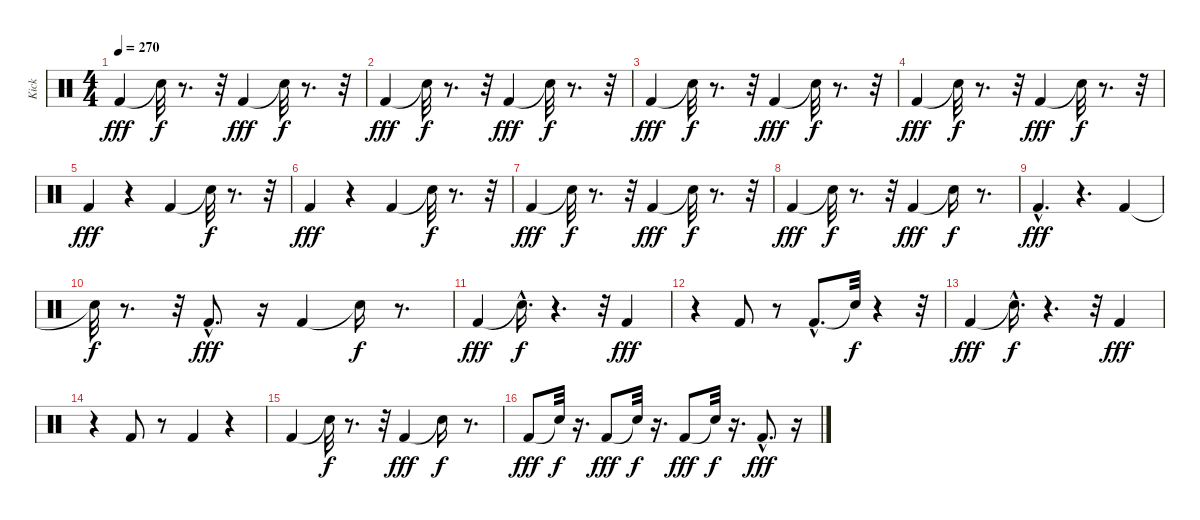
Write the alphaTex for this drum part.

\track ("Kick" "Kick") {instrument percussion}
\staff {score}
\articulation defaults
\ts (4 4)
\tempo 270
\clef neutral
\ks c "Kick (hit) 2".4{dy fff} "Snare (hit)"{t}.32{dy f}
r.8{d} r.32 "Kick (hit) 2".4{dy fff} "Snare (hit)"{t}.32{dy f} r.8{d} r.32 |
"Kick (hit) 2".4{dy fff} "Snare (hit)"{t}.32{dy f} r.8{d} r.32 "Kick (hit) 2".4{dy fff} "Snare (hit)"{t}.32{dy f} r.8{d} r.32 |
"Kick (hit) 2".4{dy fff} "Snare (hit)"{t}.32{dy f} r.8{d} r.32 "Kick (hit) 2".4{dy fff} "Snare (hit)"{t}.32{dy f} r.8{d} r.32 |
"Kick (hit) 2".4{dy fff} "Snare (hit)"{t}.32{dy f} r.8{d} r.32 "Kick (hit) 2".4{dy fff} "Snare (hit)"{t}.32{dy f} r.8{d} r.32 |
"Kick (hit) 2".4{dy fff} r.4 "Kick (hit) 2".4 "Snare (hit)"{t}.32{dy f} r.8{d} r.32 |
"Kick (hit) 2".4{dy fff} r.4 "Kick (hit) 2".4 "Snare (hit)"{t}.32{dy f} r.8{d} r.32 |
"Kick (hit) 2".4{dy fff} "Snare (hit)"{t}.32{dy f} r.8{d} r.32 "Kick (hit) 2".4{dy fff} "Snare (hit)"{t}.32{dy f} r.8{d} r.32 |
"Kick (hit) 2".4{dy fff} "Snare (hit)"{t}.32{dy f} r.8{d} r.32 "Kick (hit) 2".4{dy fff} "Snare (hit)"{t}.16{dy f} r.8{d} |
"Kick (hit) 2"{hac}.4{d dy fff} r.4{d} "Kick (hit) 2".4 |
"Snare (hit)"{t}.32{dy f} r.8{d} r.32 "Kick (hit) 2"{hac}.8{d dy fff} r.16 "Kick (hit) 2".4 "Snare (hit)"{t}.16{dy f} r.8{d} |
"Kick (hit) 2".4{dy fff} "Snare (hit)"{hac t}.16{d dy f} r.4{d} r.32 "Kick (hit) 2".4{dy fff} |
r.4 "Kick (hit) 2".8 r.8 "Kick (hit) 2"{hac}.8{d} "Snare (hit)"{t}.32{dy f} r.4 r.32 |
"Kick (hit) 2".4{dy fff} "Snare (hit)"{hac t}.16{d dy f} r.4{d} r.32 "Kick (hit) 2".4{dy fff} |
r.4 "Kick (hit) 2".8 r.8 "Kick (hit) 2".4 r.4 |
"Kick (hit) 2".4 "Snare (hit)"{t}.32{dy f} r.8{d} r.32 "Kick (hit) 2".4{dy fff} "Snare (hit)"{t}.16{dy f} r.8{d} |
"Kick (hit) 2".8{dy fff} "Snare (hit)"{t}.32{dy f} r.16{d} "Kick (hit) 2".8{dy fff} "Snare (hit)"{t}.32{dy f} r.16{d} "Kick (hit) 2".8{dy fff} "Snare (hit)"{t}.32{dy f} r.16{d} "Kick (hit) 2"{hac}.8{d dy fff} r.16
